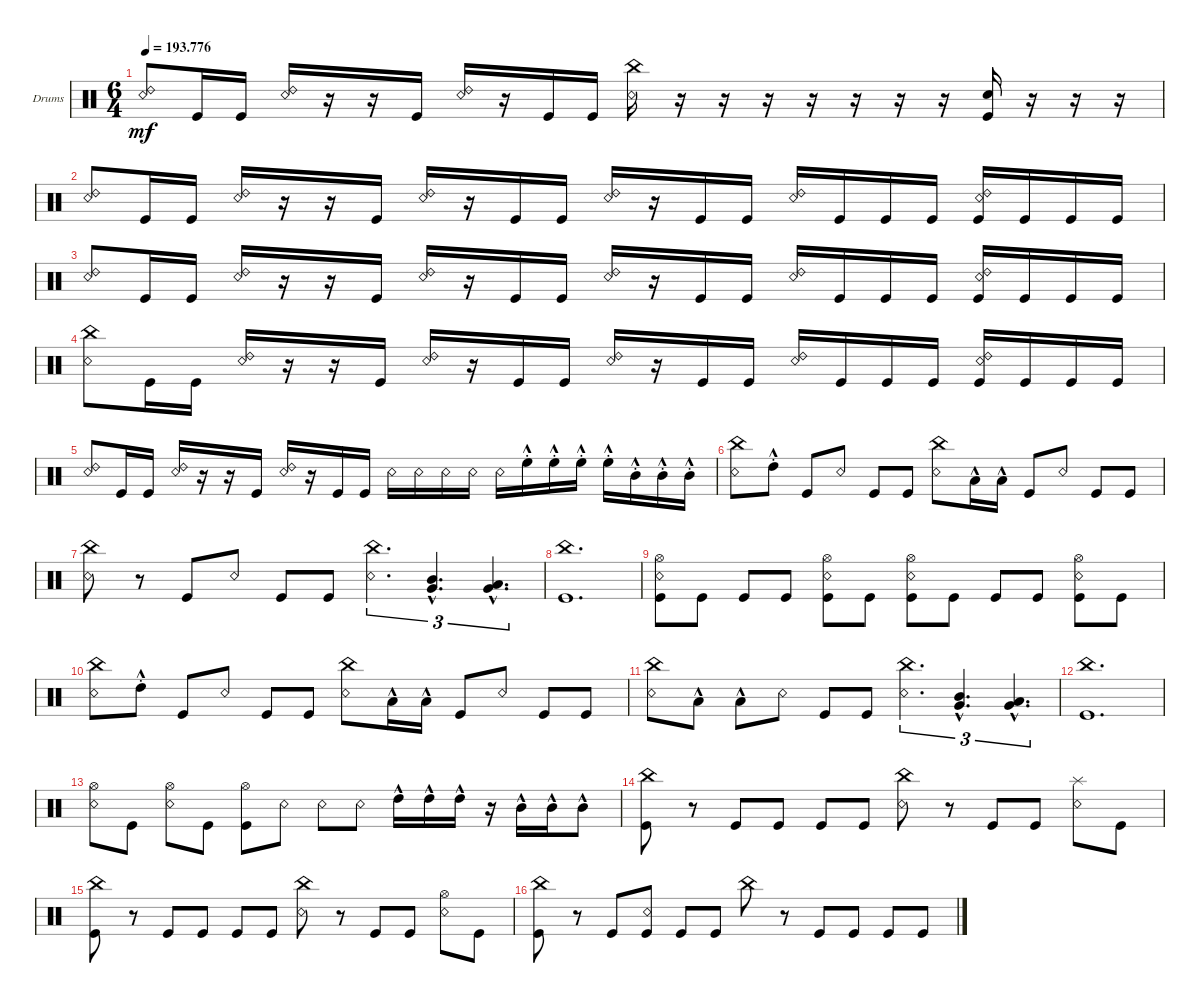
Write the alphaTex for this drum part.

\defaultSystemsLayout 4
\bracketExtendMode groupsimilarinstruments
\firstSystemTrackNameOrientation horizontal
\otherSystemsTrackNameOrientation horizontal
\track ("Drumkit" "Drums") {multiBarRest instrument percussion}
\staff {score}
\articulation defaults
\ts (6 4)
\scale
0.245054
\tempo
193.776
\accidentals auto
\clef neutral
\ottava regular
\simile none
\scale
0.333333
\ks c
("Snare (rim shot)" "Ride (bell) 2").8{dy mf} "Kick (hit)".16 "Kick (hit)".16 ("Snare (rim shot)" "Ride (bell) 2").16 r.16 r.16 "Kick (hit)".16 ("Ride (bell) 2" "Snare (rim shot)").16 r.16 "Kick (hit)".16 "Kick (hit)".16 ("Snare (rim shot)" "China (hit)").16 r.16 r.16 r.16 r.16 r.16 r.16 r.16 ("Snare (hit) 2" "Kick (hit)").16 r.16 r.16 r.16 |
\scale
0.333333 ("Snare (rim shot)" "Ride (bell) 2").8 "Kick (hit)".16 "Kick (hit)".16 ("Snare (rim shot)" "Ride (bell) 2").16 r.16 r.16 "Kick (hit)".16 ("Ride (bell) 2" "Snare (rim shot)").16 r.16 "Kick (hit)".16 "Kick (hit)".16 ("Snare (rim shot)" "Ride (bell) 2").16 r.16 "Kick (hit)".16 "Kick (hit)".16 ("Snare (rim shot)" "Ride (bell) 2").16 "Kick (hit)".16 "Kick (hit)".16 "Kick (hit)".16 ("Kick (hit)" "Snare (rim shot)" "Ride (bell) 2").16 "Kick (hit)".16 "Kick (hit)".16 "Kick (hit)".16 |
\scale
0.333333 ("Snare (rim shot)" "Ride (bell) 2").8 "Kick (hit)".16 "Kick (hit)".16 ("Snare (rim shot)" "Ride (bell) 2").16 r.16 r.16 "Kick (hit)".16 ("Ride (bell) 2" "Snare (rim shot)").16 r.16 "Kick (hit)".16 "Kick (hit)".16 ("Snare (rim shot)" "Ride (bell) 2").16 r.16 "Kick (hit)".16 "Kick (hit)".16 ("Snare (rim shot)" "Ride (bell) 2").16 "Kick (hit)".16 "Kick (hit)".16 "Kick (hit)".16 ("Kick (hit)" "Snare (rim shot)" "Ride (bell) 2").16 "Kick (hit)".16 "Kick (hit)".16 "Kick (hit)".16 |
\scale
0.333333 ("Snare (rim shot)" "China (hit)").8 "Kick (hit)".16 "Kick (hit)".16 ("Snare (rim shot)" "Ride (bell) 2").16 r.16 r.16 "Kick (hit)".16 ("Ride (bell) 2" "Snare (rim shot)").16 r.16 "Kick (hit)".16 "Kick (hit)".16 ("Snare (rim shot)" "Ride (bell) 2").16 r.16 "Kick (hit)".16 "Kick (hit)".16 ("Snare (rim shot)" "Ride (bell) 2").16 "Kick (hit)".16 "Kick (hit)".16 "Kick (hit)".16 ("Kick (hit)" "Snare (rim shot)" "Ride (bell) 2").16 "Kick (hit)".16 "Kick (hit)".16 "Kick (hit)".16 |
\scale
0.333333 ("Snare (rim shot)" "Ride (bell) 2").8 "Kick (hit)".16 "Kick (hit)".16 ("Snare (rim shot)" "Ride (bell) 2").16 r.16 r.16 "Kick (hit)".16 ("Ride (bell) 2" "Snare (rim shot)").16 r.16 "Kick (hit)".16 "Kick (hit)".16 "Snare (rim shot)".16 "Snare (rim shot)".16 "Snare (rim shot)".16 "Snare (rim shot)".16 "Snare (rim shot)".16 "High Floor Tom (hit)"{hac st}.16 "High Floor Tom (hit)"{hac st}.16 "High Floor Tom (hit)"{hac st}.16 "High Floor Tom (hit)"{hac st}.16 "Mid Tom (hit)"{hac st}.16 "Mid Tom (hit)"{hac st}.16 "Mid Tom (hit)"{hac st}.16 |
\scale
0.333333 ("China (hit)" "Snare (rim shot)").8 "High Tom (hit)"{hac st}.8 "Kick (hit)".8 "Snare (rim shot)".8 "Kick (hit)".8 "Kick (hit)".8 ("China (hit)" "Snare (rim shot)").8 "Low Tom (hit)"{hac}.16 "Low Tom (hit)"{hac}.16 "Kick (hit)".8 "Snare (rim shot)".8 "Kick (hit)".8 "Kick (hit)".8 |
\scale
0.333333 ("China (hit)" "Snare (rim shot)").8 r.8 "Kick (hit)".8 "Snare (rim shot)".8 "Kick (hit)".8 "Kick (hit)".8 ("China (hit)" "Snare (rim shot)").4{d tu (3 2)} ("Very Low Tom (hit)"{hac} "Mid Tom (hit)"{hac}).4{d tu (3 2)} ("Very Low Tom (hit)"{hac} "Low Tom (hit)"{hac}).4{d tu (3 2)} |
\scale
0.333333 ("Kick (hit)" "China (hit)").1{d} |
\scale
0.333333 ("Snare (rim shot)" "Kick (hit)" "Hi-Hat (open)").8 "Kick (hit)".8 "Kick (hit)".8 "Kick (hit)".8 ("Kick (hit)" "Snare (rim shot)" "Hi-Hat (open)").8 "Kick (hit)".8 ("Snare (rim shot)" "Kick (hit)" "Hi-Hat (open)").8 "Kick (hit)".8 "Kick (hit)".8 "Kick (hit)".8 ("Kick (hit)" "Snare (rim shot)" "Hi-Hat (open)").8 "Kick (hit)".8 |
\scale
0.333333 ("China (hit)" "Snare (rim shot)").8 "High Tom (hit)"{hac st}.8 "Kick (hit)".8 "Snare (rim shot)".8 "Kick (hit)".8 "Kick (hit)".8 ("China (hit)" "Snare (rim shot)").8 "Low Tom (hit)"{hac}.16 "Low Tom (hit)"{hac}.16 "Kick (hit)".8 "Snare (rim shot)".8 "Kick (hit)".8 "Kick (hit)".8 |
\scale
0.333333 ("China (hit)" "Snare (rim shot)").8 "Low Tom (hit)"{hac}.8 "Low Tom (hit)"{hac}.8 "Snare (rim shot)".8 "Kick (hit)".8 "Kick (hit)".8 ("China (hit)" "Snare (rim shot)").4{d tu (3 2)} ("Very Low Tom (hit)"{hac} "Mid Tom (hit)"{hac}).4{d tu (3 2)} ("Very Low Tom (hit)"{hac} "Low Tom (hit)"{hac}).4{d tu (3 2)} |
\scale
0.333333 ("Kick (hit)" "China (hit)").1{d} |
\scale
0.333333 ("Snare (rim shot)" "Hi-Hat (open)").8 "Kick (hit)".8 ("Snare (rim shot)" "Hi-Hat (open)").8 "Kick (hit)".8 ("Kick (hit)" "Hi-Hat (open)").8 "Snare (rim shot)".8 "Snare (rim shot)".8 "Snare (rim shot)".8 "High Tom (hit)"{hac}.16 "High Tom (hit)"{hac}.16 "High Tom (hit)"{hac}.16 r.16 "Mid Tom (hit)"{hac}.16 "Mid Tom (hit)"{hac}.16 "Mid Tom (hit)"{hac}.8 |
("China (hit)" "Kick (hit)").8 r.8 "Kick (hit)".8 "Kick (hit)".8 "Kick (hit)".8 "Kick (hit)".8 ("Snare (rim shot)" "China (hit)").8 r.8 "Kick (hit)".8 "Kick (hit)".8 ("Snare (rim shot)" "Splash (hit)").8 "Kick (hit)".8 |
\scale
0.333333 ("China (hit)" "Kick (hit)").8 r.8 "Kick (hit)".8 "Kick (hit)".8 "Kick (hit)".8 "Kick (hit)".8 ("Snare (rim shot)" "China (hit)").8 r.8 "Kick (hit)".8 "Kick (hit)".8 ("Snare (rim shot)" "Hi-Hat (open)").8 "Kick (hit)".8 |
\scale
0.333333 ("China (hit)" "Kick (hit)").8 r.8 "Kick (hit)".8 ("Kick (hit)" "Snare (rim shot)").8 "Kick (hit)".8 "Kick (hit)".8 "China (hit)".8 r.8 "Kick (hit)".8 "Kick (hit)".8 "Kick (hit)".8 "Kick (hit)".8
